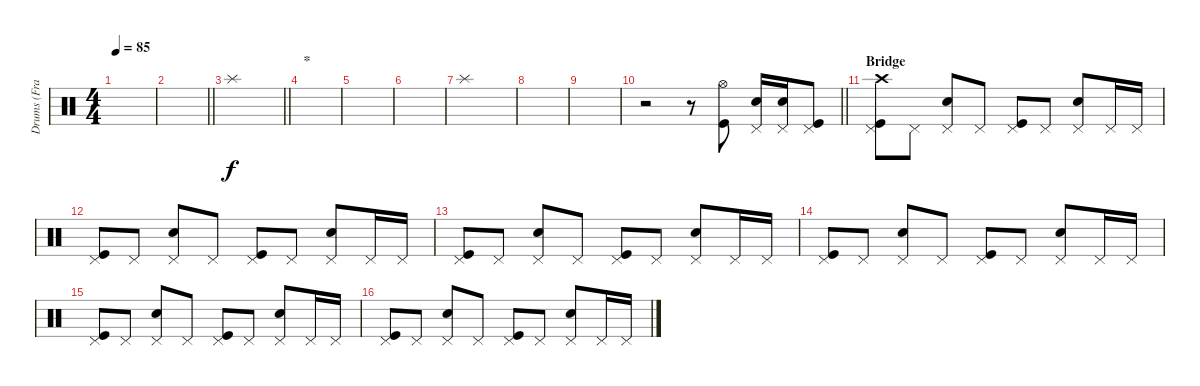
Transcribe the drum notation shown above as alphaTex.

\track ("Drums (Frank Ferrer)" "Drums (Fra") {instrument percussion}
\staff {score}
\articulation defaults
\ts (4 4)
\tempo 85
\clef neutral
\ks c
|
\barLineRight lightlight
|
\barLineRight lightlight "Splash (hit)".1
|
\section ("" "*")
|
|
|
"Splash (hit)".1 |
|
|
\barLineRight lightlight
r.2 r.8 ("Kick (hit)" "Hi-Hat (open)").8 ("Snare (hit) 2" "Pedal Hi-Hat (hit)").16 ("Snare (hit) 2" "Pedal Hi-Hat (hit)").16 ("Kick (hit)" "Pedal Hi-Hat (hit)").8 |
\section ("" "Bridge")
("Kick (hit)" "Pedal Hi-Hat (hit)" "Crash high (hit)").8 "Pedal Hi-Hat (hit)".8 ("Snare (hit) 2" "Pedal Hi-Hat (hit)").8 "Pedal Hi-Hat (hit)".8 ("Kick (hit)" "Pedal Hi-Hat (hit)").8 "Pedal Hi-Hat (hit)".8 ("Snare (hit) 2" "Pedal Hi-Hat (hit)").8 "Pedal Hi-Hat (hit)".16 "Pedal Hi-Hat (hit)".16 |
("Kick (hit)" "Pedal Hi-Hat (hit)").8 "Pedal Hi-Hat (hit)".8 ("Snare (hit) 2" "Pedal Hi-Hat (hit)").8 "Pedal Hi-Hat (hit)".8 ("Kick (hit)" "Pedal Hi-Hat (hit)").8 "Pedal Hi-Hat (hit)".8 ("Snare (hit) 2" "Pedal Hi-Hat (hit)").8 "Pedal Hi-Hat (hit)".16 "Pedal Hi-Hat (hit)".16 |
("Kick (hit)" "Pedal Hi-Hat (hit)").8 "Pedal Hi-Hat (hit)".8 ("Snare (hit) 2" "Pedal Hi-Hat (hit)").8 "Pedal Hi-Hat (hit)".8 ("Kick (hit)" "Pedal Hi-Hat (hit)").8 "Pedal Hi-Hat (hit)".8 ("Snare (hit) 2" "Pedal Hi-Hat (hit)").8 "Pedal Hi-Hat (hit)".16 "Pedal Hi-Hat (hit)".16 |
("Kick (hit)" "Pedal Hi-Hat (hit)").8 "Pedal Hi-Hat (hit)".8 ("Snare (hit) 2" "Pedal Hi-Hat (hit)").8 "Pedal Hi-Hat (hit)".8 ("Kick (hit)" "Pedal Hi-Hat (hit)").8 "Pedal Hi-Hat (hit)".8 ("Snare (hit) 2" "Pedal Hi-Hat (hit)").8 "Pedal Hi-Hat (hit)".16 "Pedal Hi-Hat (hit)".16 |
("Kick (hit)" "Pedal Hi-Hat (hit)").8 "Pedal Hi-Hat (hit)".8 ("Snare (hit) 2" "Pedal Hi-Hat (hit)").8 "Pedal Hi-Hat (hit)".8 ("Kick (hit)" "Pedal Hi-Hat (hit)").8 "Pedal Hi-Hat (hit)".8 ("Snare (hit) 2" "Pedal Hi-Hat (hit)").8 "Pedal Hi-Hat (hit)".16 "Pedal Hi-Hat (hit)".16 |
("Kick (hit)" "Pedal Hi-Hat (hit)").8 "Pedal Hi-Hat (hit)".8 ("Snare (hit) 2" "Pedal Hi-Hat (hit)").8 "Pedal Hi-Hat (hit)".8 ("Kick (hit)" "Pedal Hi-Hat (hit)").8 "Pedal Hi-Hat (hit)".8 ("Snare (hit) 2" "Pedal Hi-Hat (hit)").8 "Pedal Hi-Hat (hit)".16 "Pedal Hi-Hat (hit)".16
